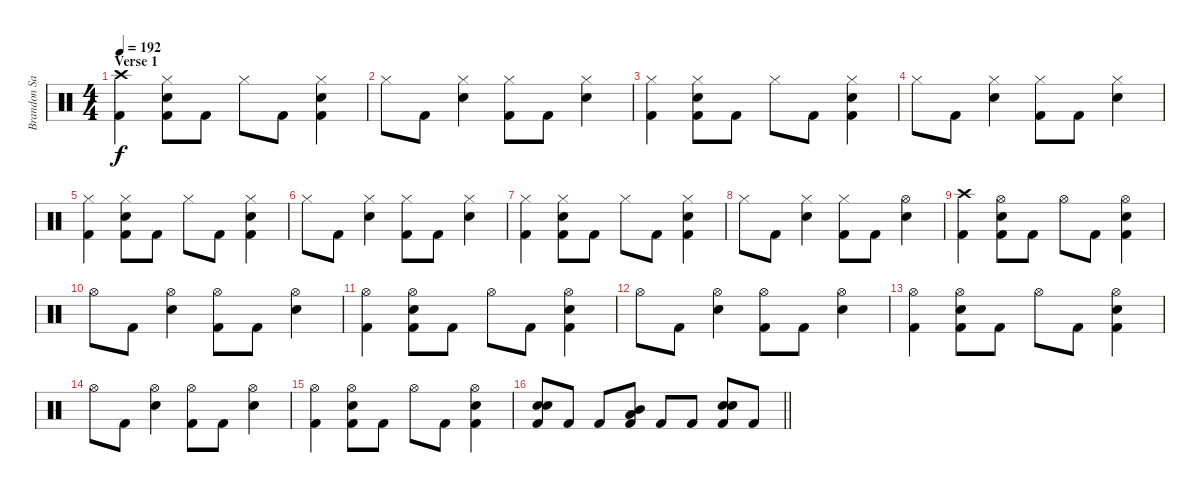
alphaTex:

\track ("Brandon Saller" "Brandon Sa") {instrument percussion}
\staff {score}
\articulation defaults
\ts (4 4)
\section ("" "Verse 1")
\tempo 192
\clef neutral
\ks aminor
("Kick (hit) 2" "Crash high (hit)").4{dy f} ("Kick (hit) 2" "Snare (hit) 2" "Hi-Hat (closed)").8 "Kick (hit) 2".8 "Hi-Hat (closed)".8 "Kick (hit) 2".8 ("Kick (hit) 2" "Snare (hit) 2" "Hi-Hat (closed)").4 |
"Hi-Hat (closed)".8 "Kick (hit) 2".8 ("Snare (hit) 2" "Hi-Hat (closed)").4 ("Kick (hit) 2" "Hi-Hat (closed)").8 "Kick (hit) 2".8 ("Snare (hit) 2" "Hi-Hat (closed)").4 |
("Kick (hit) 2" "Hi-Hat (closed)").4 ("Kick (hit) 2" "Snare (hit) 2" "Hi-Hat (closed)").8 "Kick (hit) 2".8 "Hi-Hat (closed)".8 "Kick (hit) 2".8 ("Kick (hit) 2" "Snare (hit) 2" "Hi-Hat (closed)").4 |
"Hi-Hat (closed)".8 "Kick (hit) 2".8 ("Snare (hit) 2" "Hi-Hat (closed)").4 ("Kick (hit) 2" "Hi-Hat (closed)").8 "Kick (hit) 2".8 ("Snare (hit) 2" "Hi-Hat (closed)").4 |
("Kick (hit) 2" "Hi-Hat (closed)").4 ("Kick (hit) 2" "Snare (hit) 2" "Hi-Hat (closed)").8 "Kick (hit) 2".8 "Hi-Hat (closed)".8 "Kick (hit) 2".8 ("Kick (hit) 2" "Snare (hit) 2" "Hi-Hat (closed)").4 |
"Hi-Hat (closed)".8 "Kick (hit) 2".8 ("Snare (hit) 2" "Hi-Hat (closed)").4 ("Kick (hit) 2" "Hi-Hat (closed)").8 "Kick (hit) 2".8 ("Snare (hit) 2" "Hi-Hat (closed)").4 |
("Kick (hit) 2" "Hi-Hat (closed)").4 ("Kick (hit) 2" "Snare (hit) 2" "Hi-Hat (closed)").8 "Kick (hit) 2".8 "Hi-Hat (closed)".8 "Kick (hit) 2".8 ("Kick (hit) 2" "Snare (hit) 2" "Hi-Hat (closed)").4 |
"Hi-Hat (closed)".8 "Kick (hit) 2".8 ("Snare (hit) 2" "Hi-Hat (closed)").4 ("Kick (hit) 2" "Hi-Hat (closed)").8 "Kick (hit) 2".8 ("Snare (hit) 2" "Hi-Hat (open)").4 |
("Kick (hit) 2" "Crash high (hit)").4 ("Kick (hit) 2" "Snare (hit) 2" "Hi-Hat (open)").8 "Kick (hit) 2".8 "Hi-Hat (open)".8 "Kick (hit) 2".8 ("Kick (hit) 2" "Snare (hit) 2" "Hi-Hat (open)").4 |
"Hi-Hat (open)".8 "Kick (hit) 2".8 ("Snare (hit) 2" "Hi-Hat (open)").4 ("Kick (hit) 2" "Hi-Hat (open)").8 "Kick (hit) 2".8 ("Snare (hit) 2" "Hi-Hat (open)").4 |
("Kick (hit) 2" "Hi-Hat (open)").4 ("Kick (hit) 2" "Snare (hit) 2" "Hi-Hat (open)").8 "Kick (hit) 2".8 "Hi-Hat (open)".8 "Kick (hit) 2".8 ("Kick (hit) 2" "Snare (hit) 2" "Hi-Hat (open)").4 |
"Hi-Hat (open)".8 "Kick (hit) 2".8 ("Snare (hit) 2" "Hi-Hat (open)").4 ("Kick (hit) 2" "Hi-Hat (open)").8 "Kick (hit) 2".8 ("Snare (hit) 2" "Hi-Hat (open)").4 |
("Kick (hit) 2" "Hi-Hat (open)").4 ("Kick (hit) 2" "Snare (hit) 2" "Hi-Hat (open)").8 "Kick (hit) 2".8 "Hi-Hat (open)".8 "Kick (hit) 2".8 ("Kick (hit) 2" "Snare (hit) 2" "Hi-Hat (open)").4 |
"Hi-Hat (open)".8 "Kick (hit) 2".8 ("Snare (hit) 2" "Hi-Hat (open)").4 ("Kick (hit) 2" "Hi-Hat (open)").8 "Kick (hit) 2".8 ("Snare (hit) 2" "Hi-Hat (open)").4 |
("Kick (hit) 2" "Hi-Hat (open)").4 ("Kick (hit) 2" "Snare (hit) 2" "Hi-Hat (open)").8 "Kick (hit) 2".8 "Hi-Hat (open)".8 "Kick (hit) 2".8 ("Kick (hit) 2" "Snare (hit) 2" "Hi-Hat (open)").4 |
\barLineRight lightlight
("Kick (hit) 2" "Snare (hit) 2" "Snare (hit) 2").8 "Kick (hit) 2".8 "Kick (hit) 2".8 ("Kick (hit) 2" "Mid Tom (hit)" "Low Floor Tom (hit)").8 "Kick (hit) 2".8 "Kick (hit) 2".8 ("Kick (hit) 2" "Snare (hit) 2" "Snare (hit) 2").8 "Kick (hit) 2".8
